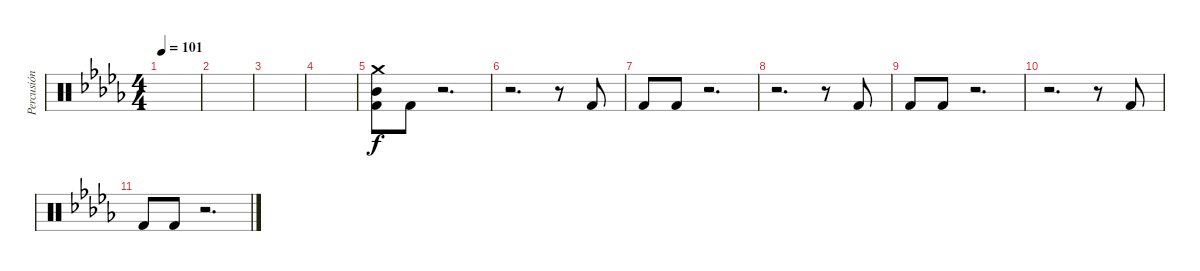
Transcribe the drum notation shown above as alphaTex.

\track ("Percusión" "Percusión") {instrument percussion}
\staff {score}
\articulation defaults
\ts (4 4)
\tempo 101
\clef neutral
\ks db
|
|
|
|
("Crash medium (hit)" "Mid Tom (hit)" "Kick (hit) 2").8 "Kick (hit) 2".8{dy f} r.2{d} |
r.2{d} r.8 "Kick (hit) 2".8 |
"Kick (hit) 2".8 "Kick (hit) 2".8 r.2{d} |
r.2{d} r.8 "Kick (hit) 2".8 |
"Kick (hit) 2".8 "Kick (hit) 2".8 r.2{d} |
r.2{d} r.8 "Kick (hit) 2".8 |
"Kick (hit) 2".8 "Kick (hit) 2".8 r.2{d}
